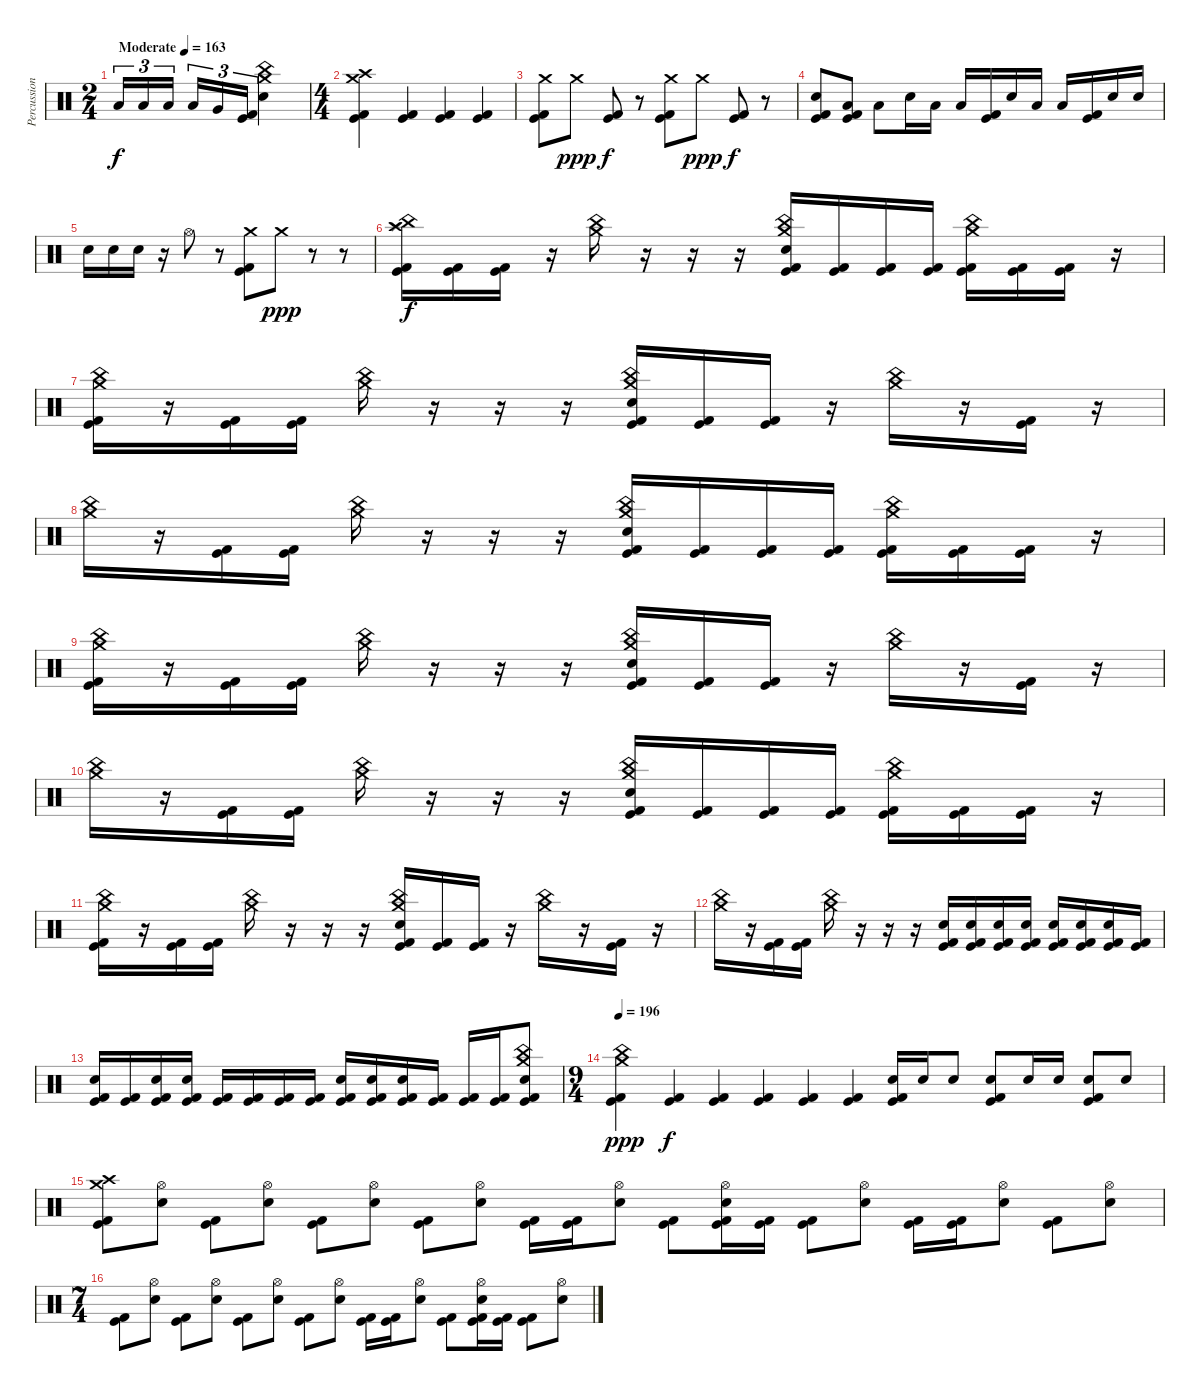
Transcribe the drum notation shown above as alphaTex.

\track ("Percussion" "Percussion") {instrument percussion}
\staff {score}
\articulation defaults
\ts (2 4)
\tempo (163 "Moderate")
\clef neutral
\ks c "Low Tom (hit)".16{tu (3 2) dy f} "Low Tom (hit)".16{tu (3 2)} "Low Tom (hit)".16{tu (3 2) beam splitsecondary} "Low Tom (hit)".16{tu (3 2)} "Very Low Tom (hit)".16{tu (3 2)}
("Kick (hit)" "Kick (hit) 2").16{tu (3 2)} ("Crash medium (hit)" "China (hit)" "Electric Snare (hit)").4 |
\ts (4 4)
("Crash medium (hit)" "Crash high (hit)" "Kick (hit)" "Kick (hit) 2").4 ("Kick (hit)" "Kick (hit) 2").4 ("Kick (hit)" "Kick (hit) 2").4 ("Kick (hit)" "Kick (hit) 2").4 |
("Crash medium (hit)" "Kick (hit)" "Kick (hit) 2").8 "Crash medium (hit)".8{dy ppp} ("Kick (hit)" "Kick (hit) 2").8{dy f} r.8 ("Crash medium (hit)" "Kick (hit)" "Kick (hit) 2").8 "Crash medium (hit)".8{dy ppp} ("Kick (hit)" "Kick (hit) 2").8{dy f} r.8 |
("Electric Snare (hit)" "Kick (hit)" "Kick (hit) 2").8 ("Low Tom (hit)" "Kick (hit)" "Kick (hit) 2").8 "Low Floor Tom (hit)".8 "Electric Snare (hit)".16 "Low Tom (hit)".16 "Low Floor Tom (hit)".16 ("Kick (hit)" "Kick (hit) 2").16 "Electric Snare (hit)".16 "Low Tom (hit)".16 "Low Floor Tom (hit)".16 ("Kick (hit)" "Kick (hit) 2").16 "Electric Snare (hit)".16 "Electric Snare (hit)".16 |
"Electric Snare (hit)".16 "Electric Snare (hit)".16 "Electric Snare (hit)".16 r.16 "Hi-Hat (open)".8 r.8 ("Crash medium (hit)" "Kick (hit)" "Kick (hit) 2").8 "Crash medium (hit)".8{dy ppp} r.8 r.8 |
("Splash (hit)" "China (hit)" "Crash high (hit)" "Kick (hit)" "Kick (hit) 2").16{dy f} ("Kick (hit)" "Kick (hit) 2").16 ("Kick (hit)" "Kick (hit) 2").16 r.16 ("Crash medium (hit)" "China (hit)").16 r.16 r.16 r.16 ("Crash medium (hit)" "China (hit)" "Electric Snare (hit)" "Kick (hit)" "Kick (hit) 2").16 ("Kick (hit)" "Kick (hit) 2").16 ("Kick (hit)" "Kick (hit) 2").16 ("Kick (hit)" "Kick (hit) 2").16 ("Crash medium (hit)" "China (hit)" "Kick (hit)" "Kick (hit) 2").16 ("Kick (hit)" "Kick (hit) 2").16 ("Kick (hit)" "Kick (hit) 2").16 r.16 |
("Crash medium (hit)" "China (hit)" "Kick (hit)" "Kick (hit) 2").16 r.16 ("Kick (hit)" "Kick (hit) 2").16 ("Kick (hit)" "Kick (hit) 2").16 ("Crash medium (hit)" "China (hit)").16 r.16 r.16 r.16 ("Crash medium (hit)" "China (hit)" "Electric Snare (hit)" "Kick (hit)" "Kick (hit) 2").16 ("Kick (hit)" "Kick (hit) 2").16 ("Kick (hit)" "Kick (hit) 2").16 r.16 ("Crash medium (hit)" "China (hit)").16 r.16 ("Kick (hit)" "Kick (hit) 2").16 r.16 |
("Crash medium (hit)" "China (hit)").16 r.16 ("Kick (hit)" "Kick (hit) 2").16 ("Kick (hit)" "Kick (hit) 2").16 ("Crash medium (hit)" "China (hit)").16 r.16 r.16 r.16 ("Crash medium (hit)" "China (hit)" "Electric Snare (hit)" "Kick (hit)" "Kick (hit) 2").16 ("Kick (hit)" "Kick (hit) 2").16 ("Kick (hit)" "Kick (hit) 2").16 ("Kick (hit)" "Kick (hit) 2").16 ("Crash medium (hit)" "China (hit)" "Kick (hit)" "Kick (hit) 2").16 ("Kick (hit)" "Kick (hit) 2").16 ("Kick (hit)" "Kick (hit) 2").16 r.16 |
("Crash medium (hit)" "China (hit)" "Kick (hit)" "Kick (hit) 2").16 r.16 ("Kick (hit)" "Kick (hit) 2").16 ("Kick (hit)" "Kick (hit) 2").16 ("Crash medium (hit)" "China (hit)").16 r.16 r.16 r.16 ("Crash medium (hit)" "China (hit)" "Electric Snare (hit)" "Kick (hit)" "Kick (hit) 2").16 ("Kick (hit)" "Kick (hit) 2").16 ("Kick (hit)" "Kick (hit) 2").16 r.16 ("Crash medium (hit)" "China (hit)").16 r.16 ("Kick (hit)" "Kick (hit) 2").16 r.16 |
("Crash medium (hit)" "China (hit)").16 r.16 ("Kick (hit)" "Kick (hit) 2").16 ("Kick (hit)" "Kick (hit) 2").16 ("Crash medium (hit)" "China (hit)").16 r.16 r.16 r.16 ("Crash medium (hit)" "China (hit)" "Electric Snare (hit)" "Kick (hit)" "Kick (hit) 2").16 ("Kick (hit)" "Kick (hit) 2").16 ("Kick (hit)" "Kick (hit) 2").16 ("Kick (hit)" "Kick (hit) 2").16 ("Crash medium (hit)" "China (hit)" "Kick (hit)" "Kick (hit) 2").16 ("Kick (hit)" "Kick (hit) 2").16 ("Kick (hit)" "Kick (hit) 2").16 r.16 |
("Crash medium (hit)" "China (hit)" "Kick (hit)" "Kick (hit) 2").16 r.16 ("Kick (hit)" "Kick (hit) 2").16 ("Kick (hit)" "Kick (hit) 2").16 ("Crash medium (hit)" "China (hit)").16 r.16 r.16 r.16 ("Crash medium (hit)" "China (hit)" "Electric Snare (hit)" "Kick (hit)" "Kick (hit) 2").16 ("Kick (hit)" "Kick (hit) 2").16 ("Kick (hit)" "Kick (hit) 2").16 r.16 ("Crash medium (hit)" "China (hit)").16 r.16 ("Kick (hit)" "Kick (hit) 2").16 r.16 |
("Crash medium (hit)" "China (hit)").16 r.16 ("Kick (hit)" "Kick (hit) 2").16 ("Kick (hit)" "Kick (hit) 2").16 ("Crash medium (hit)" "China (hit)").16 r.16 r.16 r.16 ("Electric Snare (hit)" "Kick (hit)" "Kick (hit) 2").16 ("Electric Snare (hit)" "Kick (hit)" "Kick (hit) 2").16 ("Electric Snare (hit)" "Kick (hit)" "Kick (hit) 2").16 ("Electric Snare (hit)" "Kick (hit)" "Kick (hit) 2").16 ("Electric Snare (hit)" "Kick (hit)" "Kick (hit) 2").16 ("Electric Snare (hit)" "Kick (hit)" "Kick (hit) 2").16 ("Electric Snare (hit)" "Kick (hit)" "Kick (hit) 2").16 ("Kick (hit)" "Kick (hit) 2").16 |
("Electric Snare (hit)" "Kick (hit)" "Kick (hit) 2").16 ("Kick (hit)" "Kick (hit) 2").16 ("Electric Snare (hit)" "Kick (hit)" "Kick (hit) 2").16 ("Electric Snare (hit)" "Kick (hit)" "Kick (hit) 2").16 ("Kick (hit)" "Kick (hit) 2").16 ("Kick (hit)" "Kick (hit) 2").16 ("Kick (hit)" "Kick (hit) 2").16 ("Kick (hit)" "Kick (hit) 2").16 ("Electric Snare (hit)" "Kick (hit)" "Kick (hit) 2").16 ("Electric Snare (hit)" "Kick (hit)" "Kick (hit) 2").16 ("Electric Snare (hit)" "Kick (hit)" "Kick (hit) 2").16 ("Kick (hit)" "Kick (hit) 2").16 ("Kick (hit)" "Kick (hit) 2").16 ("Kick (hit)" "Kick (hit) 2").16 ("Crash medium (hit)" "China (hit)" "Electric Snare (hit)" "Kick (hit)" "Kick (hit) 2").8 |
\ts (9 4)
\tempo 196
("Crash medium (hit)" "China (hit)" "Kick (hit)" "Kick (hit) 2").4{dy ppp} ("Kick (hit)" "Kick (hit) 2").4{dy f} ("Kick (hit)" "Kick (hit) 2").4 ("Kick (hit)" "Kick (hit) 2").4 ("Kick (hit)" "Kick (hit) 2").4 ("Kick (hit)" "Kick (hit) 2").4 ("Electric Snare (hit)" "Kick (hit)" "Kick (hit) 2").16 "Electric Snare (hit)".16 "Electric Snare (hit)".8 ("Electric Snare (hit)" "Kick (hit)" "Kick (hit) 2").8 "Electric Snare (hit)".16 "Electric Snare (hit)".16 ("Electric Snare (hit)" "Kick (hit)" "Kick (hit) 2").8 "Electric Snare (hit)".8 |
("Crash medium (hit)" "Crash high (hit)" "Kick (hit)" "Kick (hit) 2").8 ("Hi-Hat (open)" "Electric Snare (hit)").8 ("Kick (hit)" "Kick (hit) 2").8 ("Hi-Hat (open)" "Electric Snare (hit)").8 ("Kick (hit)" "Kick (hit) 2").8 ("Hi-Hat (open)" "Electric Snare (hit)").8 ("Kick (hit)" "Kick (hit) 2").8 ("Hi-Hat (open)" "Electric Snare (hit)").8 ("Kick (hit)" "Kick (hit) 2").16 ("Kick (hit)" "Kick (hit) 2").16 ("Hi-Hat (open)" "Electric Snare (hit)").8 ("Kick (hit)" "Kick (hit) 2").8 ("Hi-Hat (open)" "Electric Snare (hit)" "Kick (hit)" "Kick (hit) 2").16 ("Kick (hit)" "Kick (hit) 2").16 ("Kick (hit)" "Kick (hit) 2").8 ("Hi-Hat (open)" "Electric Snare (hit)").8 ("Kick (hit)" "Kick (hit) 2").16 ("Kick (hit)" "Kick (hit) 2").16 ("Hi-Hat (open)" "Electric Snare (hit)").8 ("Kick (hit)" "Kick (hit) 2").8 ("Hi-Hat (open)" "Electric Snare (hit)").8 |
\ts (7 4)
("Kick (hit)" "Kick (hit) 2").8 ("Hi-Hat (open)" "Electric Snare (hit)").8 ("Kick (hit)" "Kick (hit) 2").8 ("Hi-Hat (open)" "Electric Snare (hit)").8 ("Kick (hit)" "Kick (hit) 2").8 ("Hi-Hat (open)" "Electric Snare (hit)").8 ("Kick (hit)" "Kick (hit) 2").8 ("Hi-Hat (open)" "Electric Snare (hit)").8 ("Kick (hit)" "Kick (hit) 2").16 ("Kick (hit)" "Kick (hit) 2").16 ("Hi-Hat (open)" "Electric Snare (hit)").8 ("Kick (hit)" "Kick (hit) 2").8 ("Hi-Hat (open)" "Electric Snare (hit)" "Kick (hit)" "Kick (hit) 2").16 ("Kick (hit)" "Kick (hit) 2").16 ("Kick (hit)" "Kick (hit) 2").8 ("Hi-Hat (open)" "Electric Snare (hit)").8
